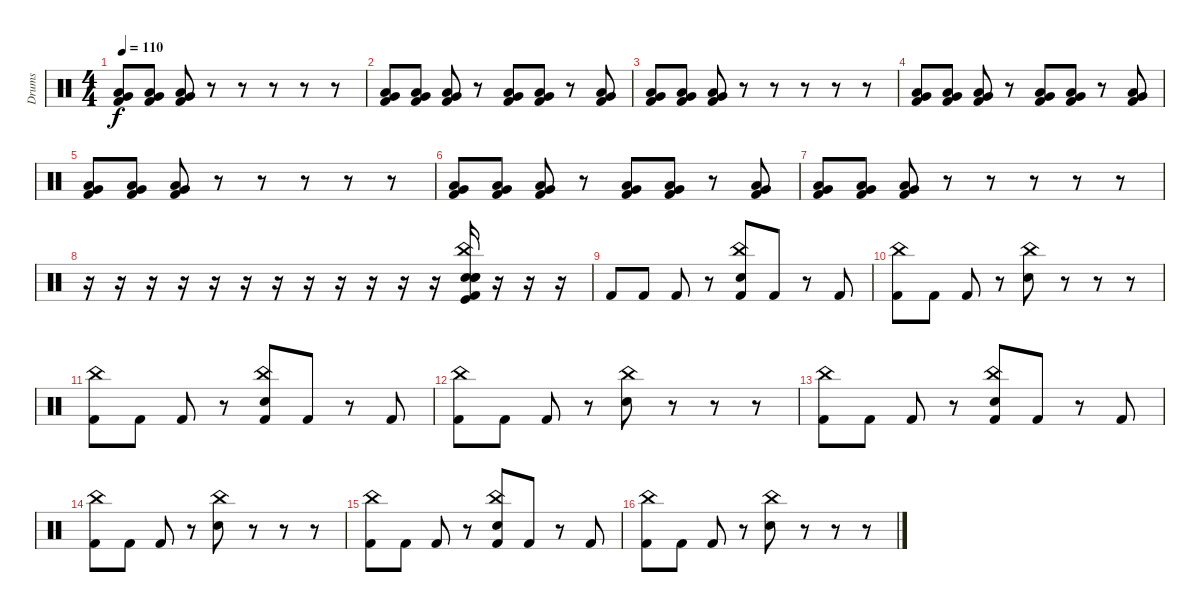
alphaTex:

\track ("Drums" "Drums") {instrument percussion}
\staff {score}
\articulation defaults
\ts (4 4)
\tempo 110
\clef neutral
\ks c
("Very Low Tom (hit)" "Low Floor Tom (hit)" "Kick (hit) 2").8{dy f} ("Very Low Tom (hit)" "Low Floor Tom (hit)" "Kick (hit) 2").8 ("Very Low Tom (hit)" "Low Floor Tom (hit)" "Kick (hit) 2").8 r.8 r.8 r.8 r.8 r.8 |
("Very Low Tom (hit)" "Low Floor Tom (hit)" "Kick (hit) 2").8 ("Very Low Tom (hit)" "Low Floor Tom (hit)" "Kick (hit) 2").8 ("Very Low Tom (hit)" "Low Floor Tom (hit)" "Kick (hit) 2").8 r.8 ("Very Low Tom (hit)" "Low Floor Tom (hit)" "Kick (hit) 2").8 ("Very Low Tom (hit)" "Low Floor Tom (hit)" "Kick (hit) 2").8 r.8 ("Very Low Tom (hit)" "Low Floor Tom (hit)" "Kick (hit) 2").8 |
("Very Low Tom (hit)" "Low Floor Tom (hit)" "Kick (hit) 2").8 ("Very Low Tom (hit)" "Low Floor Tom (hit)" "Kick (hit) 2").8 ("Very Low Tom (hit)" "Low Floor Tom (hit)" "Kick (hit) 2").8 r.8 r.8 r.8 r.8 r.8 |
("Very Low Tom (hit)" "Low Floor Tom (hit)" "Kick (hit) 2").8 ("Very Low Tom (hit)" "Low Floor Tom (hit)" "Kick (hit) 2").8 ("Very Low Tom (hit)" "Low Floor Tom (hit)" "Kick (hit) 2").8 r.8 ("Very Low Tom (hit)" "Low Floor Tom (hit)" "Kick (hit) 2").8 ("Very Low Tom (hit)" "Low Floor Tom (hit)" "Kick (hit) 2").8 r.8 ("Very Low Tom (hit)" "Low Floor Tom (hit)" "Kick (hit) 2").8 |
("Very Low Tom (hit)" "Low Floor Tom (hit)" "Kick (hit) 2").8 ("Very Low Tom (hit)" "Low Floor Tom (hit)" "Kick (hit) 2").8 ("Very Low Tom (hit)" "Low Floor Tom (hit)" "Kick (hit) 2").8 r.8 r.8 r.8 r.8 r.8 |
("Very Low Tom (hit)" "Low Floor Tom (hit)" "Kick (hit) 2").8 ("Very Low Tom (hit)" "Low Floor Tom (hit)" "Kick (hit) 2").8 ("Very Low Tom (hit)" "Low Floor Tom (hit)" "Kick (hit) 2").8 r.8 ("Very Low Tom (hit)" "Low Floor Tom (hit)" "Kick (hit) 2").8 ("Very Low Tom (hit)" "Low Floor Tom (hit)" "Kick (hit) 2").8 r.8 ("Very Low Tom (hit)" "Low Floor Tom (hit)" "Kick (hit) 2").8 |
("Very Low Tom (hit)" "Low Floor Tom (hit)" "Kick (hit) 2").8 ("Very Low Tom (hit)" "Low Floor Tom (hit)" "Kick (hit) 2").8 ("Very Low Tom (hit)" "Low Floor Tom (hit)" "Kick (hit) 2").8 r.8 r.8 r.8 r.8 r.8 |
r.16 r.16 r.16 r.16 r.16 r.16 r.16 r.16 r.16 r.16 r.16 r.16 ("China (hit)" "Snare (hit) 2" "Snare (hit) 2" "Snare (hit) 2" "Kick (hit)" "Kick (hit) 2").16 r.16 r.16 r.16 |
"Kick (hit) 2".8 "Kick (hit) 2".8 "Kick (hit) 2".8 r.8 ("China (hit)" "Snare (hit) 2" "Kick (hit) 2").8 "Kick (hit) 2".8 r.8 "Kick (hit) 2".8 |
("China (hit)" "Kick (hit) 2").8 "Kick (hit) 2".8 "Kick (hit) 2".8 r.8 ("China (hit)" "Snare (hit) 2").8 r.8 r.8 r.8 |
("China (hit)" "Kick (hit) 2").8 "Kick (hit) 2".8 "Kick (hit) 2".8 r.8 ("China (hit)" "Snare (hit) 2" "Kick (hit) 2").8 "Kick (hit) 2".8 r.8 "Kick (hit) 2".8 |
("China (hit)" "Kick (hit) 2").8 "Kick (hit) 2".8 "Kick (hit) 2".8 r.8 ("China (hit)" "Snare (hit) 2").8 r.8 r.8 r.8 |
("China (hit)" "Kick (hit) 2").8 "Kick (hit) 2".8 "Kick (hit) 2".8 r.8 ("China (hit)" "Snare (hit) 2" "Kick (hit) 2").8 "Kick (hit) 2".8 r.8 "Kick (hit) 2".8 |
("China (hit)" "Kick (hit) 2").8 "Kick (hit) 2".8 "Kick (hit) 2".8 r.8 ("China (hit)" "Snare (hit) 2").8 r.8 r.8 r.8 |
("China (hit)" "Kick (hit) 2").8 "Kick (hit) 2".8 "Kick (hit) 2".8 r.8 ("China (hit)" "Snare (hit) 2" "Kick (hit) 2").8 "Kick (hit) 2".8 r.8 "Kick (hit) 2".8 |
("China (hit)" "Kick (hit) 2").8 "Kick (hit) 2".8 "Kick (hit) 2".8 r.8 ("China (hit)" "Snare (hit) 2").8 r.8 r.8 r.8
